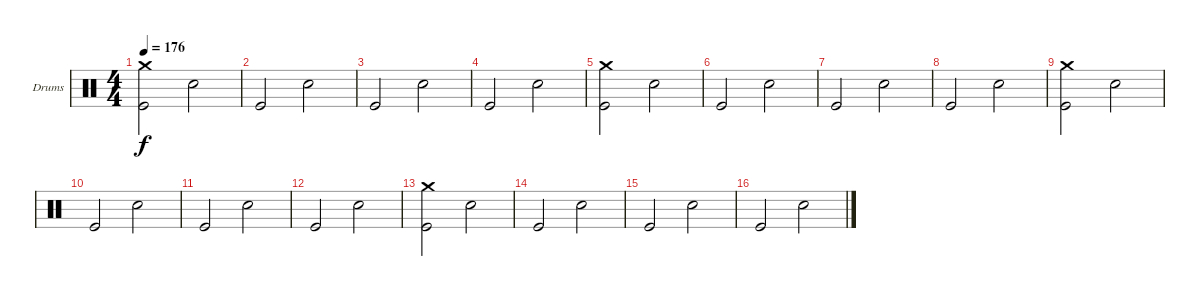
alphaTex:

\bracketExtendMode groupsimilarinstruments
\firstSystemTrackNameOrientation horizontal
\otherSystemsTrackNameOrientation horizontal
\track ("Drumkit" "Drums") {instrument percussion}
\staff {score}
\articulation defaults
\ts (4 4)
\tempo 176
\clef neutral
\ks c
("Crash medium (hit)" "Kick (hit)").2{dy f} "Snare (hit) 2".2 |
"Kick (hit)".2 "Snare (hit) 2".2 |
"Kick (hit)".2 "Snare (hit) 2".2 |
"Kick (hit)".2 "Snare (hit) 2".2 |
("Crash medium (hit)" "Kick (hit)").2 "Snare (hit) 2".2 |
"Kick (hit)".2 "Snare (hit) 2".2 |
"Kick (hit)".2 "Snare (hit) 2".2 |
"Kick (hit)".2 "Snare (hit) 2".2 |
("Crash medium (hit)" "Kick (hit)").2 "Snare (hit) 2".2 |
"Kick (hit)".2 "Snare (hit) 2".2 |
"Kick (hit)".2 "Snare (hit) 2".2 |
"Kick (hit)".2 "Snare (hit) 2".2 |
("Crash medium (hit)" "Kick (hit)").2 "Snare (hit) 2".2 |
"Kick (hit)".2 "Snare (hit) 2".2 |
"Kick (hit)".2 "Snare (hit) 2".2 |
"Kick (hit)".2 "Snare (hit) 2".2
